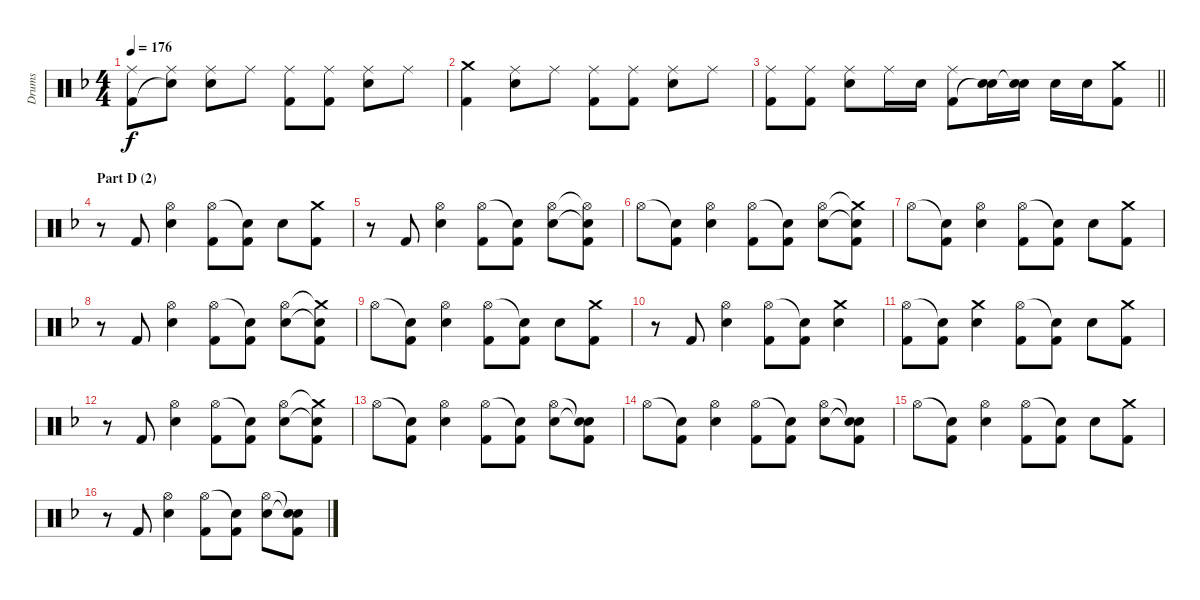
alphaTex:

\track ("Drums" "Drums") {instrument percussion}
\staff {score}
\articulation defaults
\ts (4 4)
\tempo 176
\clef neutral
\ks f
("Ride (middle)" "Kick (hit) 2").8{dy f} ("Ride (middle)" "Snare (hit)"{t}).8 ("Ride (middle)" "Electric Snare (hit)").8 "Ride (middle)".8 ("Ride (middle)" "Kick (hit) 2").8 ("Ride (middle)" "Kick (hit) 2").8 ("Ride (middle)" "Electric Snare (hit)").8 "Ride (middle)".8 |
("Crash medium (hit)" "Kick (hit) 2").4 ("Ride (middle)" "Electric Snare (hit)").8 "Ride (middle)".8 ("Ride (middle)" "Kick (hit) 2").8 ("Ride (middle)" "Kick (hit) 2").8 ("Ride (middle)" "Electric Snare (hit)").8 "Ride (middle)".8 |
\barLineRight lightlight
("Ride (middle)" "Kick (hit) 2").8 ("Ride (middle)" "Kick (hit) 2").8 ("Ride (middle)" "Electric Snare (hit)").8 "Ride (middle)".16 "Electric Snare (hit)".16 ("Ride (middle)" "Kick (hit) 2").8 ("Electric Snare (hit)" "Snare (hit)"{t}).16 ("Electric Snare (hit)" "Snare (hit)"{t}).16 "Electric Snare (hit)".16 "Electric Snare (hit)".16 ("Crash medium (hit)" "Kick (hit) 2").8 |
\section ("" "Part D (2)")
r.8 "Kick (hit) 2".8 ("Hi-Hat (open)" "Electric Snare (hit)").4 ("Hi-Hat (open)" "Kick (hit) 2").8 ("Snare (hit)"{t} "Kick (hit) 2").8 "Electric Snare (hit)".8 ("Crash medium (hit)" "Kick (hit) 2").8 |
r.8 "Kick (hit) 2".8 ("Hi-Hat (open)" "Electric Snare (hit)").4 ("Hi-Hat (open)" "Kick (hit) 2").8 ("Snare (hit)"{t} "Kick (hit) 2").8 ("Hi-Hat (open)" "Electric Snare (hit)").8 ("Hi-Hat (open)"{t} "Snare (hit)"{t} "Kick (hit) 2").8 |
"Hi-Hat (open)".8 ("Snare (hit)"{t} "Kick (hit) 2").8 ("Hi-Hat (open)" "Electric Snare (hit)").4 ("Hi-Hat (open)" "Kick (hit) 2").8 ("Snare (hit)"{t} "Kick (hit) 2").8 ("Hi-Hat (open)" "Electric Snare (hit)").8 ("Crash medium (hit)"{t} "Snare (hit)"{t} "Kick (hit) 2").8 |
"Hi-Hat (open)".8 ("Snare (hit)"{t} "Kick (hit) 2").8 ("Hi-Hat (open)" "Electric Snare (hit)").4 ("Hi-Hat (open)" "Kick (hit) 2").8 ("Snare (hit)"{t} "Kick (hit) 2").8 "Electric Snare (hit)".8 ("Crash medium (hit)" "Kick (hit) 2").8 |
r.8 "Kick (hit) 2".8 ("Hi-Hat (open)" "Electric Snare (hit)").4 ("Hi-Hat (open)" "Kick (hit) 2").8 ("Snare (hit)"{t} "Kick (hit) 2").8 ("Hi-Hat (open)" "Electric Snare (hit)").8 ("Crash medium (hit)"{t} "Snare (hit)"{t} "Kick (hit) 2").8 |
"Hi-Hat (open)".8 ("Snare (hit)"{t} "Kick (hit) 2").8 ("Hi-Hat (open)" "Electric Snare (hit)").4 ("Hi-Hat (open)" "Kick (hit) 2").8 ("Snare (hit)"{t} "Kick (hit) 2").8 "Electric Snare (hit)".8 ("Crash medium (hit)" "Kick (hit) 2").8 |
r.8 "Kick (hit) 2".8 ("Hi-Hat (open)" "Electric Snare (hit)").4 ("Hi-Hat (open)" "Kick (hit) 2").8 ("Snare (hit)"{t} "Kick (hit) 2").8 ("Crash medium (hit)" "Electric Snare (hit)").4 |
("Hi-Hat (open)" "Kick (hit) 2").8 ("Snare (hit)"{t} "Kick (hit) 2").8 ("Crash medium (hit)" "Electric Snare (hit)").4 ("Hi-Hat (open)" "Kick (hit) 2").8 ("Snare (hit)"{t} "Kick (hit) 2").8 "Electric Snare (hit)".8 ("Crash medium (hit)" "Kick (hit) 2").8 |
r.8 "Kick (hit) 2".8 ("Hi-Hat (open)" "Electric Snare (hit)").4 ("Hi-Hat (open)" "Kick (hit) 2").8 ("Snare (hit)"{t} "Kick (hit) 2").8 ("Hi-Hat (open)" "Electric Snare (hit)").8 ("Crash medium (hit)"{t} "Snare (hit)"{t} "Kick (hit) 2").8 |
"Hi-Hat (open)".8 ("Snare (hit)"{t} "Kick (hit) 2").8 ("Hi-Hat (open)" "Electric Snare (hit)").4 ("Hi-Hat (open)" "Kick (hit) 2").8 ("Snare (hit)"{t} "Kick (hit) 2").8 ("Hi-Hat (open)" "Electric Snare (hit)").8 ("Snare (hit)"{t} "Snare (hit)"{t} "Kick (hit) 2").8 |
"Hi-Hat (open)".8 ("Snare (hit)"{t} "Kick (hit) 2").8 ("Hi-Hat (open)" "Electric Snare (hit)").4 ("Hi-Hat (open)" "Kick (hit) 2").8 ("Snare (hit)"{t} "Kick (hit) 2").8 ("Hi-Hat (open)" "Electric Snare (hit)").8 ("Snare (hit)"{t} "Snare (hit)"{t} "Kick (hit) 2").8 |
"Hi-Hat (open)".8 ("Snare (hit)"{t} "Kick (hit) 2").8 ("Hi-Hat (open)" "Electric Snare (hit)").4 ("Hi-Hat (open)" "Kick (hit) 2").8 ("Snare (hit)"{t} "Kick (hit) 2").8 "Electric Snare (hit)".8 ("Crash medium (hit)" "Kick (hit) 2").8 |
r.8 "Kick (hit) 2".8 ("Hi-Hat (open)" "Electric Snare (hit)").4 ("Hi-Hat (open)" "Kick (hit) 2").8 ("Snare (hit)"{t} "Kick (hit) 2").8 ("Hi-Hat (open)" "Electric Snare (hit)").8 ("Snare (hit)"{t} "Snare (hit)"{t} "Kick (hit) 2").8
